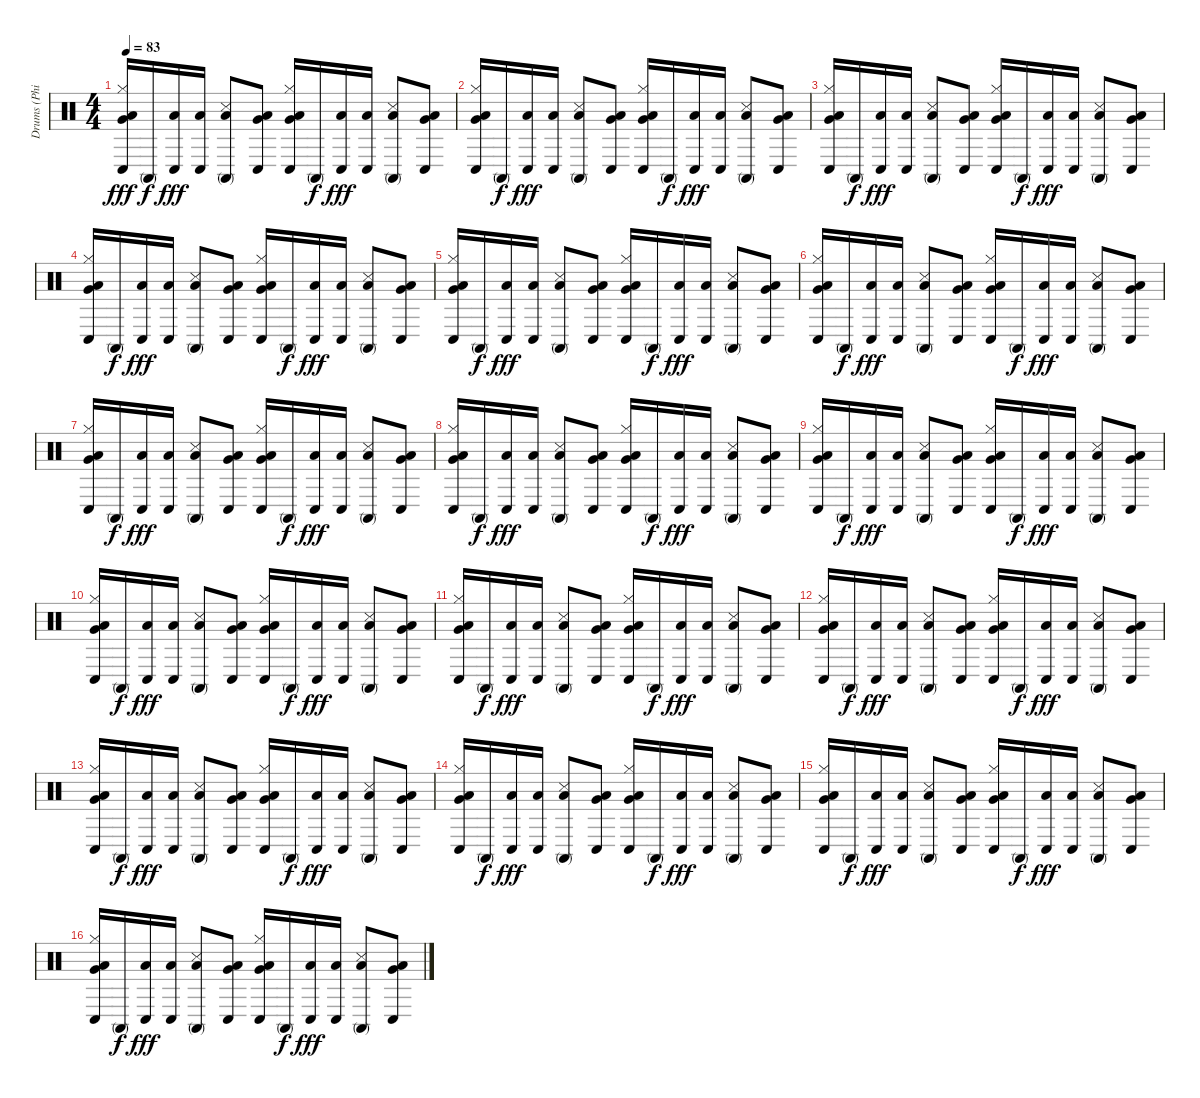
\track ("Drums (Phil)" "Drums (Phi") {instrument percussion}
\staff {score}
\articulation defaults
\ts (4 4)
\tempo 83
\clef neutral
\ks c
("Hi-Hat (closed)" "Conga low (hit)" "Low Floor Tom (hit)" "Very Low Tom (hit)").16{dy fff} "Conga high (mute)".16{dy f} ("Conga low (hit)" "Low Tom (hit)").16{dy fff} ("Conga low (hit)" "Low Tom (hit)").16 ("Conga high (mute)" "Snare (side stick) 3" "Low Tom (hit)").8 ("Conga low (hit)" "Low Floor Tom (hit)" "Very Low Tom (hit)").8 ("Hi-Hat (closed)" "Conga low (hit)" "Low Floor Tom (hit)" "Very Low Tom (hit)").16 "Conga high (mute)".16{dy f} ("Conga low (hit)" "Low Tom (hit)").16{dy fff} ("Conga low (hit)" "Low Tom (hit)").16 ("Conga high (mute)" "Snare (side stick) 3" "Low Tom (hit)").8 ("Conga low (hit)" "Low Floor Tom (hit)" "Very Low Tom (hit)").8 |
("Hi-Hat (closed)" "Conga low (hit)" "Low Floor Tom (hit)" "Very Low Tom (hit)").16 "Conga high (mute)".16{dy f} ("Conga low (hit)" "Low Tom (hit)").16{dy fff} ("Conga low (hit)" "Low Tom (hit)").16 ("Conga high (mute)" "Snare (side stick) 3" "Low Tom (hit)").8 ("Conga low (hit)" "Low Floor Tom (hit)" "Very Low Tom (hit)").8 ("Hi-Hat (closed)" "Conga low (hit)" "Low Floor Tom (hit)" "Very Low Tom (hit)").16 "Conga high (mute)".16{dy f} ("Conga low (hit)" "Low Tom (hit)").16{dy fff} ("Conga low (hit)" "Low Tom (hit)").16 ("Conga high (mute)" "Snare (side stick) 3" "Low Tom (hit)").8 ("Conga low (hit)" "Low Floor Tom (hit)" "Very Low Tom (hit)").8 |
("Hi-Hat (closed)" "Conga low (hit)" "Low Floor Tom (hit)" "Very Low Tom (hit)").16 "Conga high (mute)".16{dy f} ("Conga low (hit)" "Low Tom (hit)").16{dy fff} ("Conga low (hit)" "Low Tom (hit)").16 ("Conga high (mute)" "Snare (side stick) 3" "Low Tom (hit)").8 ("Conga low (hit)" "Low Floor Tom (hit)" "Very Low Tom (hit)").8 ("Hi-Hat (closed)" "Conga low (hit)" "Low Floor Tom (hit)" "Very Low Tom (hit)").16 "Conga high (mute)".16{dy f} ("Conga low (hit)" "Low Tom (hit)").16{dy fff} ("Conga low (hit)" "Low Tom (hit)").16 ("Conga high (mute)" "Snare (side stick) 3" "Low Tom (hit)").8 ("Conga low (hit)" "Low Floor Tom (hit)" "Very Low Tom (hit)").8 |
("Hi-Hat (closed)" "Conga low (hit)" "Low Floor Tom (hit)" "Very Low Tom (hit)").16 "Conga high (mute)".16{dy f} ("Conga low (hit)" "Low Tom (hit)").16{dy fff} ("Conga low (hit)" "Low Tom (hit)").16 ("Conga high (mute)" "Snare (side stick) 3" "Low Tom (hit)").8 ("Conga low (hit)" "Low Floor Tom (hit)" "Very Low Tom (hit)").8 ("Hi-Hat (closed)" "Conga low (hit)" "Low Floor Tom (hit)" "Very Low Tom (hit)").16 "Conga high (mute)".16{dy f} ("Conga low (hit)" "Low Tom (hit)").16{dy fff} ("Conga low (hit)" "Low Tom (hit)").16 ("Conga high (mute)" "Snare (side stick) 3" "Low Tom (hit)").8 ("Conga low (hit)" "Low Floor Tom (hit)" "Very Low Tom (hit)").8 |
("Hi-Hat (closed)" "Conga low (hit)" "Low Floor Tom (hit)" "Very Low Tom (hit)").16 "Conga high (mute)".16{dy f} ("Conga low (hit)" "Low Tom (hit)").16{dy fff} ("Conga low (hit)" "Low Tom (hit)").16 ("Conga high (mute)" "Snare (side stick) 3" "Low Tom (hit)").8 ("Conga low (hit)" "Low Floor Tom (hit)" "Very Low Tom (hit)").8 ("Hi-Hat (closed)" "Conga low (hit)" "Low Floor Tom (hit)" "Very Low Tom (hit)").16 "Conga high (mute)".16{dy f} ("Conga low (hit)" "Low Tom (hit)").16{dy fff} ("Conga low (hit)" "Low Tom (hit)").16 ("Conga high (mute)" "Snare (side stick) 3" "Low Tom (hit)").8 ("Conga low (hit)" "Low Floor Tom (hit)" "Very Low Tom (hit)").8 |
("Hi-Hat (closed)" "Conga low (hit)" "Low Floor Tom (hit)" "Very Low Tom (hit)").16 "Conga high (mute)".16{dy f} ("Conga low (hit)" "Low Tom (hit)").16{dy fff} ("Conga low (hit)" "Low Tom (hit)").16 ("Conga high (mute)" "Snare (side stick) 3" "Low Tom (hit)").8 ("Conga low (hit)" "Low Floor Tom (hit)" "Very Low Tom (hit)").8 ("Hi-Hat (closed)" "Conga low (hit)" "Low Floor Tom (hit)" "Very Low Tom (hit)").16 "Conga high (mute)".16{dy f} ("Conga low (hit)" "Low Tom (hit)").16{dy fff} ("Conga low (hit)" "Low Tom (hit)").16 ("Conga high (mute)" "Snare (side stick) 3" "Low Tom (hit)").8 ("Conga low (hit)" "Low Floor Tom (hit)" "Very Low Tom (hit)").8 |
("Hi-Hat (closed)" "Conga low (hit)" "Low Floor Tom (hit)" "Very Low Tom (hit)").16 "Conga high (mute)".16{dy f} ("Conga low (hit)" "Low Tom (hit)").16{dy fff} ("Conga low (hit)" "Low Tom (hit)").16 ("Conga high (mute)" "Snare (side stick) 3" "Low Tom (hit)").8 ("Conga low (hit)" "Low Floor Tom (hit)" "Very Low Tom (hit)").8 ("Hi-Hat (closed)" "Conga low (hit)" "Low Floor Tom (hit)" "Very Low Tom (hit)").16 "Conga high (mute)".16{dy f} ("Conga low (hit)" "Low Tom (hit)").16{dy fff} ("Conga low (hit)" "Low Tom (hit)").16 ("Conga high (mute)" "Snare (side stick) 3" "Low Tom (hit)").8 ("Conga low (hit)" "Low Floor Tom (hit)" "Very Low Tom (hit)").8 |
("Hi-Hat (closed)" "Conga low (hit)" "Low Floor Tom (hit)" "Very Low Tom (hit)").16 "Conga high (mute)".16{dy f} ("Conga low (hit)" "Low Tom (hit)").16{dy fff} ("Conga low (hit)" "Low Tom (hit)").16 ("Conga high (mute)" "Snare (side stick) 3" "Low Tom (hit)").8 ("Conga low (hit)" "Low Floor Tom (hit)" "Very Low Tom (hit)").8 ("Hi-Hat (closed)" "Conga low (hit)" "Low Floor Tom (hit)" "Very Low Tom (hit)").16 "Conga high (mute)".16{dy f} ("Conga low (hit)" "Low Tom (hit)").16{dy fff} ("Conga low (hit)" "Low Tom (hit)").16 ("Conga high (mute)" "Snare (side stick) 3" "Low Tom (hit)").8 ("Conga low (hit)" "Low Floor Tom (hit)" "Very Low Tom (hit)").8 |
("Hi-Hat (closed)" "Conga low (hit)" "Low Floor Tom (hit)" "Very Low Tom (hit)").16 "Conga high (mute)".16{dy f} ("Conga low (hit)" "Low Tom (hit)").16{dy fff} ("Conga low (hit)" "Low Tom (hit)").16 ("Conga high (mute)" "Snare (side stick) 3" "Low Tom (hit)").8 ("Conga low (hit)" "Low Floor Tom (hit)" "Very Low Tom (hit)").8 ("Hi-Hat (closed)" "Conga low (hit)" "Low Floor Tom (hit)" "Very Low Tom (hit)").16 "Conga high (mute)".16{dy f} ("Conga low (hit)" "Low Tom (hit)").16{dy fff} ("Conga low (hit)" "Low Tom (hit)").16 ("Conga high (mute)" "Snare (side stick) 3" "Low Tom (hit)").8 ("Conga low (hit)" "Low Floor Tom (hit)" "Very Low Tom (hit)").8 |
("Hi-Hat (closed)" "Conga low (hit)" "Low Floor Tom (hit)" "Very Low Tom (hit)").16 "Conga high (mute)".16{dy f} ("Conga low (hit)" "Low Tom (hit)").16{dy fff} ("Conga low (hit)" "Low Tom (hit)").16 ("Conga high (mute)" "Snare (side stick) 3" "Low Tom (hit)").8 ("Conga low (hit)" "Low Floor Tom (hit)" "Very Low Tom (hit)").8 ("Hi-Hat (closed)" "Conga low (hit)" "Low Floor Tom (hit)" "Very Low Tom (hit)").16 "Conga high (mute)".16{dy f} ("Conga low (hit)" "Low Tom (hit)").16{dy fff} ("Conga low (hit)" "Low Tom (hit)").16 ("Conga high (mute)" "Snare (side stick) 3" "Low Tom (hit)").8 ("Conga low (hit)" "Low Floor Tom (hit)" "Very Low Tom (hit)").8 |
("Hi-Hat (closed)" "Conga low (hit)" "Low Floor Tom (hit)" "Very Low Tom (hit)").16 "Conga high (mute)".16{dy f} ("Conga low (hit)" "Low Tom (hit)").16{dy fff} ("Conga low (hit)" "Low Tom (hit)").16 ("Conga high (mute)" "Snare (side stick) 3" "Low Tom (hit)").8 ("Conga low (hit)" "Low Floor Tom (hit)" "Very Low Tom (hit)").8 ("Hi-Hat (closed)" "Conga low (hit)" "Low Floor Tom (hit)" "Very Low Tom (hit)").16 "Conga high (mute)".16{dy f} ("Conga low (hit)" "Low Tom (hit)").16{dy fff} ("Conga low (hit)" "Low Tom (hit)").16 ("Conga high (mute)" "Snare (side stick) 3" "Low Tom (hit)").8 ("Conga low (hit)" "Low Floor Tom (hit)" "Very Low Tom (hit)").8 |
("Hi-Hat (closed)" "Conga low (hit)" "Low Floor Tom (hit)" "Very Low Tom (hit)").16 "Conga high (mute)".16{dy f} ("Conga low (hit)" "Low Tom (hit)").16{dy fff} ("Conga low (hit)" "Low Tom (hit)").16 ("Conga high (mute)" "Snare (side stick) 3" "Low Tom (hit)").8 ("Conga low (hit)" "Low Floor Tom (hit)" "Very Low Tom (hit)").8 ("Hi-Hat (closed)" "Conga low (hit)" "Low Floor Tom (hit)" "Very Low Tom (hit)").16 "Conga high (mute)".16{dy f} ("Conga low (hit)" "Low Tom (hit)").16{dy fff} ("Conga low (hit)" "Low Tom (hit)").16 ("Conga high (mute)" "Snare (side stick) 3" "Low Tom (hit)").8 ("Conga low (hit)" "Low Floor Tom (hit)" "Very Low Tom (hit)").8 |
("Hi-Hat (closed)" "Conga low (hit)" "Low Floor Tom (hit)" "Very Low Tom (hit)").16 "Conga high (mute)".16{dy f} ("Conga low (hit)" "Low Tom (hit)").16{dy fff} ("Conga low (hit)" "Low Tom (hit)").16 ("Conga high (mute)" "Snare (side stick) 3" "Low Tom (hit)").8 ("Conga low (hit)" "Low Floor Tom (hit)" "Very Low Tom (hit)").8 ("Hi-Hat (closed)" "Conga low (hit)" "Low Floor Tom (hit)" "Very Low Tom (hit)").16 "Conga high (mute)".16{dy f} ("Conga low (hit)" "Low Tom (hit)").16{dy fff} ("Conga low (hit)" "Low Tom (hit)").16 ("Conga high (mute)" "Snare (side stick) 3" "Low Tom (hit)").8 ("Conga low (hit)" "Low Floor Tom (hit)" "Very Low Tom (hit)").8 |
("Hi-Hat (closed)" "Conga low (hit)" "Low Floor Tom (hit)" "Very Low Tom (hit)").16 "Conga high (mute)".16{dy f} ("Conga low (hit)" "Low Tom (hit)").16{dy fff} ("Conga low (hit)" "Low Tom (hit)").16 ("Conga high (mute)" "Snare (side stick) 3" "Low Tom (hit)").8 ("Conga low (hit)" "Low Floor Tom (hit)" "Very Low Tom (hit)").8 ("Hi-Hat (closed)" "Conga low (hit)" "Low Floor Tom (hit)" "Very Low Tom (hit)").16 "Conga high (mute)".16{dy f} ("Conga low (hit)" "Low Tom (hit)").16{dy fff} ("Conga low (hit)" "Low Tom (hit)").16 ("Conga high (mute)" "Snare (side stick) 3" "Low Tom (hit)").8 ("Conga low (hit)" "Low Floor Tom (hit)" "Very Low Tom (hit)").8 |
("Hi-Hat (closed)" "Conga low (hit)" "Low Floor Tom (hit)" "Very Low Tom (hit)").16 "Conga high (mute)".16{dy f} ("Conga low (hit)" "Low Tom (hit)").16{dy fff} ("Conga low (hit)" "Low Tom (hit)").16 ("Conga high (mute)" "Snare (side stick) 3" "Low Tom (hit)").8 ("Conga low (hit)" "Low Floor Tom (hit)" "Very Low Tom (hit)").8 ("Hi-Hat (closed)" "Conga low (hit)" "Low Floor Tom (hit)" "Very Low Tom (hit)").16 "Conga high (mute)".16{dy f} ("Conga low (hit)" "Low Tom (hit)").16{dy fff} ("Conga low (hit)" "Low Tom (hit)").16 ("Conga high (mute)" "Snare (side stick) 3" "Low Tom (hit)").8 ("Conga low (hit)" "Low Floor Tom (hit)" "Very Low Tom (hit)").8 |
("Hi-Hat (closed)" "Conga low (hit)" "Low Floor Tom (hit)" "Very Low Tom (hit)").16 "Conga high (mute)".16{dy f} ("Conga low (hit)" "Low Tom (hit)").16{dy fff} ("Conga low (hit)" "Low Tom (hit)").16 ("Conga high (mute)" "Snare (side stick) 3" "Low Tom (hit)").8 ("Conga low (hit)" "Low Floor Tom (hit)" "Very Low Tom (hit)").8 ("Hi-Hat (closed)" "Conga low (hit)" "Low Floor Tom (hit)" "Very Low Tom (hit)").16 "Conga high (mute)".16{dy f} ("Conga low (hit)" "Low Tom (hit)").16{dy fff} ("Conga low (hit)" "Low Tom (hit)").16 ("Conga high (mute)" "Snare (side stick) 3" "Low Tom (hit)").8 ("Conga low (hit)" "Low Floor Tom (hit)" "Very Low Tom (hit)").8
